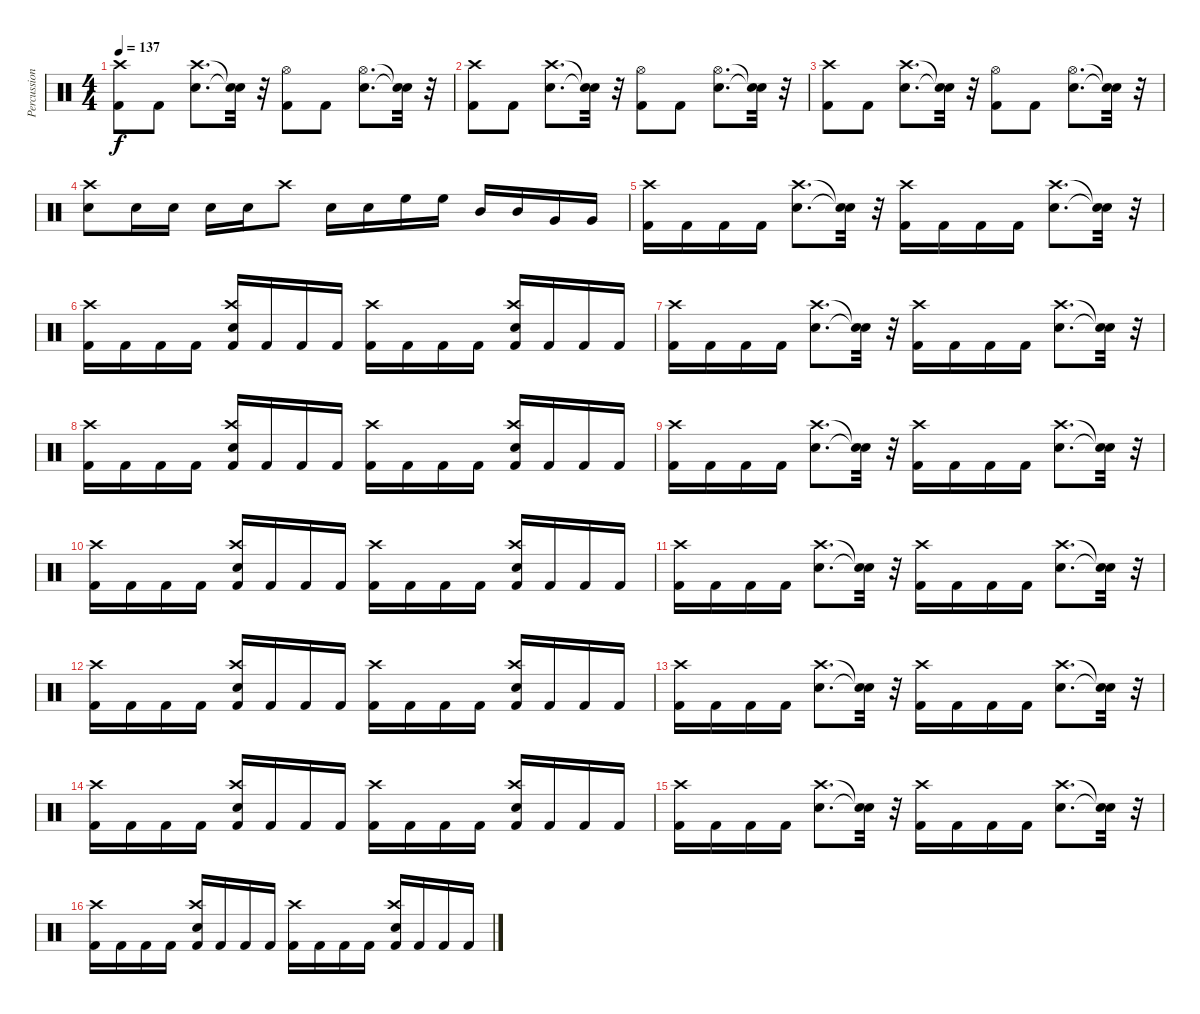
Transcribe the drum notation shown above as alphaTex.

\track ("Percussion" "Percussion") {instrument percussion}
\staff {score}
\articulation defaults
\ts (4 4)
\tempo 137
\clef neutral
\ks c
("Kick (hit) 2" "Crash high (hit)").8{dy f} "Kick (hit) 2".8 ("Snare (hit) 2" "Crash high (hit)").8{d} ("Snare (hit)"{t} "Snare (hit)"{t}).32 r.32 ("Kick (hit) 2" "Hi-Hat (open)").8 "Kick (hit) 2".8 ("Hi-Hat (open)" "Snare (hit) 2").8{d} ("Snare (hit)"{t} "Snare (hit)"{t}).32 r.32 |
("Kick (hit) 2" "Crash high (hit)").8 "Kick (hit) 2".8 ("Snare (hit) 2" "Crash high (hit)").8{d} ("Snare (hit)"{t} "Snare (hit)"{t}).32 r.32 ("Kick (hit) 2" "Hi-Hat (open)").8 "Kick (hit) 2".8 ("Hi-Hat (open)" "Snare (hit) 2").8{d} ("Snare (hit)"{t} "Snare (hit)"{t}).32 r.32 |
("Kick (hit) 2" "Crash high (hit)").8 "Kick (hit) 2".8 ("Snare (hit) 2" "Crash high (hit)").8{d} ("Snare (hit)"{t} "Snare (hit)"{t}).32 r.32 ("Kick (hit) 2" "Hi-Hat (open)").8 "Kick (hit) 2".8 ("Hi-Hat (open)" "Snare (hit) 2").8{d} ("Snare (hit)"{t} "Snare (hit)"{t}).32 r.32 |
("Snare (hit) 2" "Crash high (hit)").8 "Snare (hit) 2".16 "Snare (hit) 2".16 "Snare (hit) 2".16 "Snare (hit) 2".16 "Crash high (hit)".8 "Snare (hit) 2".16 "Snare (hit) 2".16 "High Floor Tom (hit)".16 "High Floor Tom (hit)".16 "Mid Tom (hit)".16 "Mid Tom (hit)".16 "Very Low Tom (hit)".16 "Very Low Tom (hit)".16 |
("Kick (hit) 2" "Crash high (hit)").16 "Kick (hit) 2".16 "Kick (hit) 2".16 "Kick (hit) 2".16 ("Snare (hit) 2" "Crash high (hit)").8{d} ("Snare (hit)"{t} "Snare (hit)"{t}).32 r.32 ("Kick (hit) 2" "Crash high (hit)").16 "Kick (hit) 2".16 "Kick (hit) 2".16 "Kick (hit) 2".16 ("Snare (hit) 2" "Crash high (hit)").8{d} ("Snare (hit)"{t} "Snare (hit)"{t}).32 r.32 |
("Kick (hit) 2" "Crash high (hit)").16 "Kick (hit) 2".16 "Kick (hit) 2".16 "Kick (hit) 2".16 ("Kick (hit) 2" "Crash high (hit)" "Snare (hit) 2").16 "Kick (hit) 2".16 "Kick (hit) 2".16 "Kick (hit) 2".16 ("Kick (hit) 2" "Crash high (hit)").16 "Kick (hit) 2".16 "Kick (hit) 2".16 "Kick (hit) 2".16 ("Kick (hit) 2" "Crash high (hit)" "Snare (hit) 2").16 "Kick (hit) 2".16 "Kick (hit) 2".16 "Kick (hit) 2".16 |
("Kick (hit) 2" "Crash high (hit)").16 "Kick (hit) 2".16 "Kick (hit) 2".16 "Kick (hit) 2".16 ("Snare (hit) 2" "Crash high (hit)").8{d} ("Snare (hit)"{t} "Snare (hit)"{t}).32 r.32 ("Kick (hit) 2" "Crash high (hit)").16 "Kick (hit) 2".16 "Kick (hit) 2".16 "Kick (hit) 2".16 ("Snare (hit) 2" "Crash high (hit)").8{d} ("Snare (hit)"{t} "Snare (hit)"{t}).32 r.32 |
("Kick (hit) 2" "Crash high (hit)").16 "Kick (hit) 2".16 "Kick (hit) 2".16 "Kick (hit) 2".16 ("Kick (hit) 2" "Crash high (hit)" "Snare (hit) 2").16 "Kick (hit) 2".16 "Kick (hit) 2".16 "Kick (hit) 2".16 ("Kick (hit) 2" "Crash high (hit)").16 "Kick (hit) 2".16 "Kick (hit) 2".16 "Kick (hit) 2".16 ("Kick (hit) 2" "Crash high (hit)" "Snare (hit) 2").16 "Kick (hit) 2".16 "Kick (hit) 2".16 "Kick (hit) 2".16 |
("Kick (hit) 2" "Crash high (hit)").16 "Kick (hit) 2".16 "Kick (hit) 2".16 "Kick (hit) 2".16 ("Snare (hit) 2" "Crash high (hit)").8{d} ("Snare (hit)"{t} "Snare (hit)"{t}).32 r.32 ("Kick (hit) 2" "Crash high (hit)").16 "Kick (hit) 2".16 "Kick (hit) 2".16 "Kick (hit) 2".16 ("Snare (hit) 2" "Crash high (hit)").8{d} ("Snare (hit)"{t} "Snare (hit)"{t}).32 r.32 |
("Kick (hit) 2" "Crash high (hit)").16 "Kick (hit) 2".16 "Kick (hit) 2".16 "Kick (hit) 2".16 ("Kick (hit) 2" "Crash high (hit)" "Snare (hit) 2").16 "Kick (hit) 2".16 "Kick (hit) 2".16 "Kick (hit) 2".16 ("Kick (hit) 2" "Crash high (hit)").16 "Kick (hit) 2".16 "Kick (hit) 2".16 "Kick (hit) 2".16 ("Kick (hit) 2" "Crash high (hit)" "Snare (hit) 2").16 "Kick (hit) 2".16 "Kick (hit) 2".16 "Kick (hit) 2".16 |
("Kick (hit) 2" "Crash high (hit)").16 "Kick (hit) 2".16 "Kick (hit) 2".16 "Kick (hit) 2".16 ("Snare (hit) 2" "Crash high (hit)").8{d} ("Snare (hit)"{t} "Snare (hit)"{t}).32 r.32 ("Kick (hit) 2" "Crash high (hit)").16 "Kick (hit) 2".16 "Kick (hit) 2".16 "Kick (hit) 2".16 ("Snare (hit) 2" "Crash high (hit)").8{d} ("Snare (hit)"{t} "Snare (hit)"{t}).32 r.32 |
("Kick (hit) 2" "Crash high (hit)").16 "Kick (hit) 2".16 "Kick (hit) 2".16 "Kick (hit) 2".16 ("Kick (hit) 2" "Crash high (hit)" "Snare (hit) 2").16 "Kick (hit) 2".16 "Kick (hit) 2".16 "Kick (hit) 2".16 ("Kick (hit) 2" "Crash high (hit)").16 "Kick (hit) 2".16 "Kick (hit) 2".16 "Kick (hit) 2".16 ("Kick (hit) 2" "Crash high (hit)" "Snare (hit) 2").16 "Kick (hit) 2".16 "Kick (hit) 2".16 "Kick (hit) 2".16 |
("Kick (hit) 2" "Crash high (hit)").16 "Kick (hit) 2".16 "Kick (hit) 2".16 "Kick (hit) 2".16 ("Snare (hit) 2" "Crash high (hit)").8{d} ("Snare (hit)"{t} "Snare (hit)"{t}).32 r.32 ("Kick (hit) 2" "Crash high (hit)").16 "Kick (hit) 2".16 "Kick (hit) 2".16 "Kick (hit) 2".16 ("Snare (hit) 2" "Crash high (hit)").8{d} ("Snare (hit)"{t} "Snare (hit)"{t}).32 r.32 |
("Kick (hit) 2" "Crash high (hit)").16 "Kick (hit) 2".16 "Kick (hit) 2".16 "Kick (hit) 2".16 ("Kick (hit) 2" "Crash high (hit)" "Snare (hit) 2").16 "Kick (hit) 2".16 "Kick (hit) 2".16 "Kick (hit) 2".16 ("Kick (hit) 2" "Crash high (hit)").16 "Kick (hit) 2".16 "Kick (hit) 2".16 "Kick (hit) 2".16 ("Kick (hit) 2" "Crash high (hit)" "Snare (hit) 2").16 "Kick (hit) 2".16 "Kick (hit) 2".16 "Kick (hit) 2".16 |
("Kick (hit) 2" "Crash high (hit)").16 "Kick (hit) 2".16 "Kick (hit) 2".16 "Kick (hit) 2".16 ("Snare (hit) 2" "Crash high (hit)").8{d} ("Snare (hit)"{t} "Snare (hit)"{t}).32 r.32 ("Kick (hit) 2" "Crash high (hit)").16 "Kick (hit) 2".16 "Kick (hit) 2".16 "Kick (hit) 2".16 ("Snare (hit) 2" "Crash high (hit)").8{d} ("Snare (hit)"{t} "Snare (hit)"{t}).32 r.32 |
("Kick (hit) 2" "Crash high (hit)").16 "Kick (hit) 2".16 "Kick (hit) 2".16 "Kick (hit) 2".16 ("Kick (hit) 2" "Crash high (hit)" "Snare (hit) 2").16 "Kick (hit) 2".16 "Kick (hit) 2".16 "Kick (hit) 2".16 ("Kick (hit) 2" "Crash high (hit)").16 "Kick (hit) 2".16 "Kick (hit) 2".16 "Kick (hit) 2".16 ("Kick (hit) 2" "Crash high (hit)" "Snare (hit) 2").16 "Kick (hit) 2".16 "Kick (hit) 2".16 "Kick (hit) 2".16
